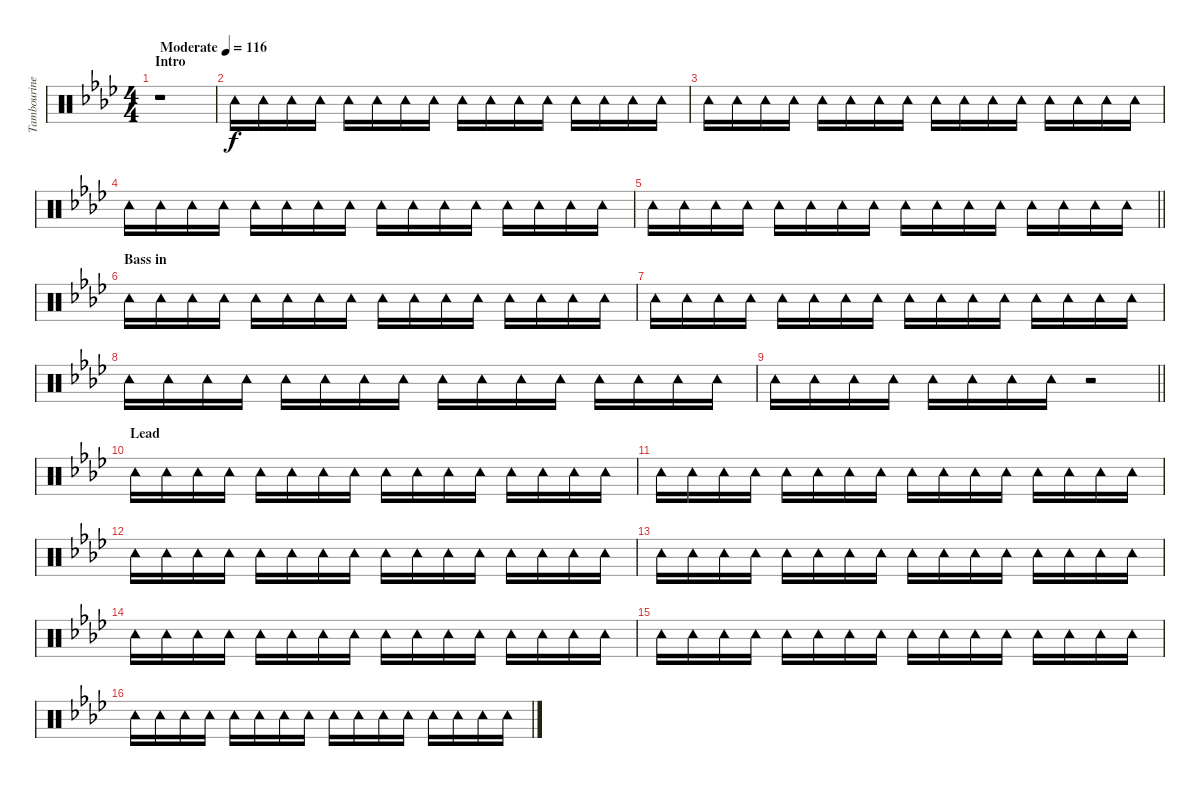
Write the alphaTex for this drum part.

\track ("Tambourine" "Tambourine") {instrument percussion}
\staff {score}
\articulation defaults
\ts (4 4)
\section ("" "Intro")
\tempo (116 "Moderate")
\clef neutral
\ks fminor
r.1{dy f} |
"Tambourine (hit)".16 "Tambourine (hit)".16 "Tambourine (hit)".16 "Tambourine (hit)".16 "Tambourine (hit)".16 "Tambourine (hit)".16 "Tambourine (hit)".16 "Tambourine (hit)".16 "Tambourine (hit)".16 "Tambourine (hit)".16 "Tambourine (hit)".16 "Tambourine (hit)".16 "Tambourine (hit)".16 "Tambourine (hit)".16 "Tambourine (hit)".16 "Tambourine (hit)".16 |
"Tambourine (hit)".16 "Tambourine (hit)".16 "Tambourine (hit)".16 "Tambourine (hit)".16 "Tambourine (hit)".16 "Tambourine (hit)".16 "Tambourine (hit)".16 "Tambourine (hit)".16 "Tambourine (hit)".16 "Tambourine (hit)".16 "Tambourine (hit)".16 "Tambourine (hit)".16 "Tambourine (hit)".16 "Tambourine (hit)".16 "Tambourine (hit)".16 "Tambourine (hit)".16 |
"Tambourine (hit)".16 "Tambourine (hit)".16 "Tambourine (hit)".16 "Tambourine (hit)".16 "Tambourine (hit)".16 "Tambourine (hit)".16 "Tambourine (hit)".16 "Tambourine (hit)".16 "Tambourine (hit)".16 "Tambourine (hit)".16 "Tambourine (hit)".16 "Tambourine (hit)".16 "Tambourine (hit)".16 "Tambourine (hit)".16 "Tambourine (hit)".16 "Tambourine (hit)".16 |
\barLineRight lightlight "Tambourine (hit)".16 "Tambourine (hit)".16 "Tambourine (hit)".16 "Tambourine (hit)".16 "Tambourine (hit)".16 "Tambourine (hit)".16 "Tambourine (hit)".16 "Tambourine (hit)".16 "Tambourine (hit)".16 "Tambourine (hit)".16 "Tambourine (hit)".16 "Tambourine (hit)".16 "Tambourine (hit)".16 "Tambourine (hit)".16 "Tambourine (hit)".16 "Tambourine (hit)".16
|
\section ("" "Bass in")
"Tambourine (hit)".16 "Tambourine (hit)".16 "Tambourine (hit)".16 "Tambourine (hit)".16 "Tambourine (hit)".16 "Tambourine (hit)".16 "Tambourine (hit)".16 "Tambourine (hit)".16 "Tambourine (hit)".16 "Tambourine (hit)".16 "Tambourine (hit)".16 "Tambourine (hit)".16 "Tambourine (hit)".16 "Tambourine (hit)".16 "Tambourine (hit)".16 "Tambourine (hit)".16 |
"Tambourine (hit)".16 "Tambourine (hit)".16 "Tambourine (hit)".16 "Tambourine (hit)".16 "Tambourine (hit)".16 "Tambourine (hit)".16 "Tambourine (hit)".16 "Tambourine (hit)".16 "Tambourine (hit)".16 "Tambourine (hit)".16 "Tambourine (hit)".16 "Tambourine (hit)".16 "Tambourine (hit)".16 "Tambourine (hit)".16 "Tambourine (hit)".16 "Tambourine (hit)".16 |
"Tambourine (hit)".16 "Tambourine (hit)".16 "Tambourine (hit)".16 "Tambourine (hit)".16 "Tambourine (hit)".16 "Tambourine (hit)".16 "Tambourine (hit)".16 "Tambourine (hit)".16 "Tambourine (hit)".16 "Tambourine (hit)".16 "Tambourine (hit)".16 "Tambourine (hit)".16 "Tambourine (hit)".16 "Tambourine (hit)".16 "Tambourine (hit)".16 "Tambourine (hit)".16 |
\barLineRight lightlight "Tambourine (hit)".16 "Tambourine (hit)".16 "Tambourine (hit)".16 "Tambourine (hit)".16 "Tambourine (hit)".16 "Tambourine (hit)".16 "Tambourine (hit)".16 "Tambourine (hit)".16
r.2 |
\section ("" "Lead")
"Tambourine (hit)".16 "Tambourine (hit)".16 "Tambourine (hit)".16 "Tambourine (hit)".16 "Tambourine (hit)".16 "Tambourine (hit)".16 "Tambourine (hit)".16 "Tambourine (hit)".16 "Tambourine (hit)".16 "Tambourine (hit)".16 "Tambourine (hit)".16 "Tambourine (hit)".16 "Tambourine (hit)".16 "Tambourine (hit)".16 "Tambourine (hit)".16 "Tambourine (hit)".16 |
"Tambourine (hit)".16 "Tambourine (hit)".16 "Tambourine (hit)".16 "Tambourine (hit)".16 "Tambourine (hit)".16 "Tambourine (hit)".16 "Tambourine (hit)".16 "Tambourine (hit)".16 "Tambourine (hit)".16 "Tambourine (hit)".16 "Tambourine (hit)".16 "Tambourine (hit)".16 "Tambourine (hit)".16 "Tambourine (hit)".16 "Tambourine (hit)".16 "Tambourine (hit)".16 |
"Tambourine (hit)".16 "Tambourine (hit)".16 "Tambourine (hit)".16 "Tambourine (hit)".16 "Tambourine (hit)".16 "Tambourine (hit)".16 "Tambourine (hit)".16 "Tambourine (hit)".16 "Tambourine (hit)".16 "Tambourine (hit)".16 "Tambourine (hit)".16 "Tambourine (hit)".16 "Tambourine (hit)".16 "Tambourine (hit)".16 "Tambourine (hit)".16 "Tambourine (hit)".16 |
"Tambourine (hit)".16 "Tambourine (hit)".16 "Tambourine (hit)".16 "Tambourine (hit)".16 "Tambourine (hit)".16 "Tambourine (hit)".16 "Tambourine (hit)".16 "Tambourine (hit)".16 "Tambourine (hit)".16 "Tambourine (hit)".16 "Tambourine (hit)".16 "Tambourine (hit)".16 "Tambourine (hit)".16 "Tambourine (hit)".16 "Tambourine (hit)".16 "Tambourine (hit)".16 |
"Tambourine (hit)".16 "Tambourine (hit)".16 "Tambourine (hit)".16 "Tambourine (hit)".16 "Tambourine (hit)".16 "Tambourine (hit)".16 "Tambourine (hit)".16 "Tambourine (hit)".16 "Tambourine (hit)".16 "Tambourine (hit)".16 "Tambourine (hit)".16 "Tambourine (hit)".16 "Tambourine (hit)".16 "Tambourine (hit)".16 "Tambourine (hit)".16 "Tambourine (hit)".16 |
"Tambourine (hit)".16 "Tambourine (hit)".16 "Tambourine (hit)".16 "Tambourine (hit)".16 "Tambourine (hit)".16 "Tambourine (hit)".16 "Tambourine (hit)".16 "Tambourine (hit)".16 "Tambourine (hit)".16 "Tambourine (hit)".16 "Tambourine (hit)".16 "Tambourine (hit)".16 "Tambourine (hit)".16 "Tambourine (hit)".16 "Tambourine (hit)".16 "Tambourine (hit)".16 |
"Tambourine (hit)".16 "Tambourine (hit)".16 "Tambourine (hit)".16 "Tambourine (hit)".16 "Tambourine (hit)".16 "Tambourine (hit)".16 "Tambourine (hit)".16 "Tambourine (hit)".16 "Tambourine (hit)".16 "Tambourine (hit)".16 "Tambourine (hit)".16 "Tambourine (hit)".16 "Tambourine (hit)".16 "Tambourine (hit)".16 "Tambourine (hit)".16 "Tambourine (hit)".16
